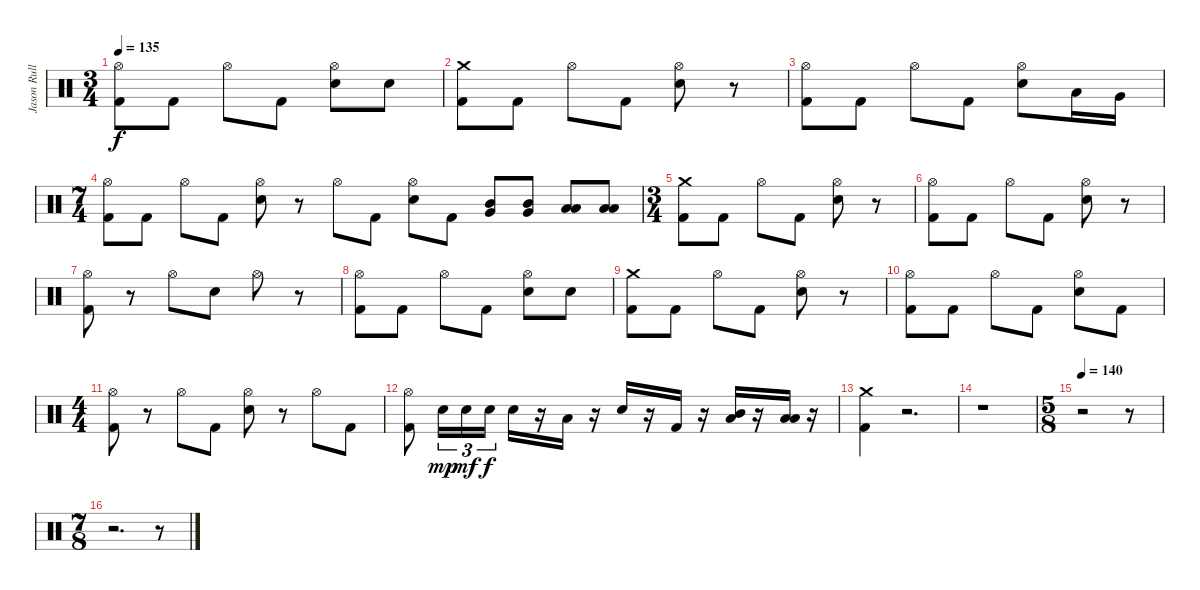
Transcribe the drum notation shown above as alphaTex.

\track ("Jason Rullo" "Jason Rull") {instrument percussion}
\staff {score}
\articulation defaults
\ts (3 4)
\tempo 135
\clef neutral
\ks c
("Hi-Hat (open)" "Kick (hit) 2").8{dy f} "Kick (hit) 2".8 "Hi-Hat (open)".8 "Kick (hit) 2".8 ("Hi-Hat (open)" "Electric Snare (hit)").8 "Electric Snare (hit)".8 |
("Crash medium (hit)" "Kick (hit) 2").8 "Kick (hit) 2".8 "Hi-Hat (open)".8 "Kick (hit) 2".8 ("Hi-Hat (open)" "Electric Snare (hit)").8 r.8 |
("Hi-Hat (open)" "Kick (hit) 2").8 "Kick (hit) 2".8 "Hi-Hat (open)".8 "Kick (hit) 2".8 ("Hi-Hat (open)" "Electric Snare (hit)").8 "Low Tom (hit)".16 "Very Low Tom (hit)".16 |
\ts (7 4)
("Hi-Hat (open)" "Kick (hit) 2").8 "Kick (hit) 2".8 "Hi-Hat (open)".8 "Kick (hit) 2".8 ("Hi-Hat (open)" "Electric Snare (hit)").8 r.8 "Hi-Hat (open)".8 "Kick (hit) 2".8 ("Hi-Hat (open)" "Electric Snare (hit)").8 "Kick (hit) 2".8 ("Mid Tom (hit)" "Very Low Tom (hit)").8 ("Mid Tom (hit)" "Very Low Tom (hit)").8 ("Low Tom (hit)" "Low Floor Tom (hit)").8 ("Low Tom (hit)" "Low Floor Tom (hit)").8 |
\ts (3 4)
("Crash medium (hit)" "Kick (hit) 2").8 "Kick (hit) 2".8 "Hi-Hat (open)".8 "Kick (hit) 2".8 ("Hi-Hat (open)" "Electric Snare (hit)").8 r.8 |
("Hi-Hat (open)" "Kick (hit) 2").8 "Kick (hit) 2".8 "Hi-Hat (open)".8 "Kick (hit) 2".8 ("Hi-Hat (open)" "Electric Snare (hit)").8 r.8 |
("Hi-Hat (open)" "Kick (hit) 2").8 r.8 "Hi-Hat (open)".8 "Electric Snare (hit)".8 "Hi-Hat (open)".8 r.8 |
("Hi-Hat (open)" "Kick (hit) 2").8 "Kick (hit) 2".8 "Hi-Hat (open)".8 "Kick (hit) 2".8 ("Hi-Hat (open)" "Electric Snare (hit)").8 "Electric Snare (hit)".8 |
("Crash medium (hit)" "Kick (hit) 2").8 "Kick (hit) 2".8 "Hi-Hat (open)".8 "Kick (hit) 2".8 ("Hi-Hat (open)" "Electric Snare (hit)").8 r.8 |
("Hi-Hat (open)" "Kick (hit) 2").8 "Kick (hit) 2".8 "Hi-Hat (open)".8 "Kick (hit) 2".8 ("Hi-Hat (open)" "Electric Snare (hit)").8 "Kick (hit) 2".8 |
\ts (4 4)
("Hi-Hat (open)" "Kick (hit) 2").8 r.8 "Hi-Hat (open)".8 "Kick (hit) 2".8 ("Hi-Hat (open)" "Electric Snare (hit)").8 r.8 "Hi-Hat (open)".8 "Kick (hit) 2".8 |
("Hi-Hat (open)" "Kick (hit) 2").8 "Electric Snare (hit)".16{tu (3 2) dy mp} "Electric Snare (hit)".16{tu (3 2) dy mf} "Electric Snare (hit)".16{tu (3 2) dy f} "Electric Snare (hit)".16 r.16 "Low Tom (hit)".16 r.16 "Electric Snare (hit)".16 r.16 "Kick (hit) 2".16 r.16 ("Mid Tom (hit)" "Low Floor Tom (hit)").16 r.16 ("Low Tom (hit)" "Low Floor Tom (hit)").16 r.16 |
("Crash medium (hit)" "Kick (hit) 2").4{volume 15 balance 8} r.2{d} |
r.1 |
\ts (5 8)
\tempo 140
r.2 r.8 |
\ts (7 8)
r.2{d} r.8
